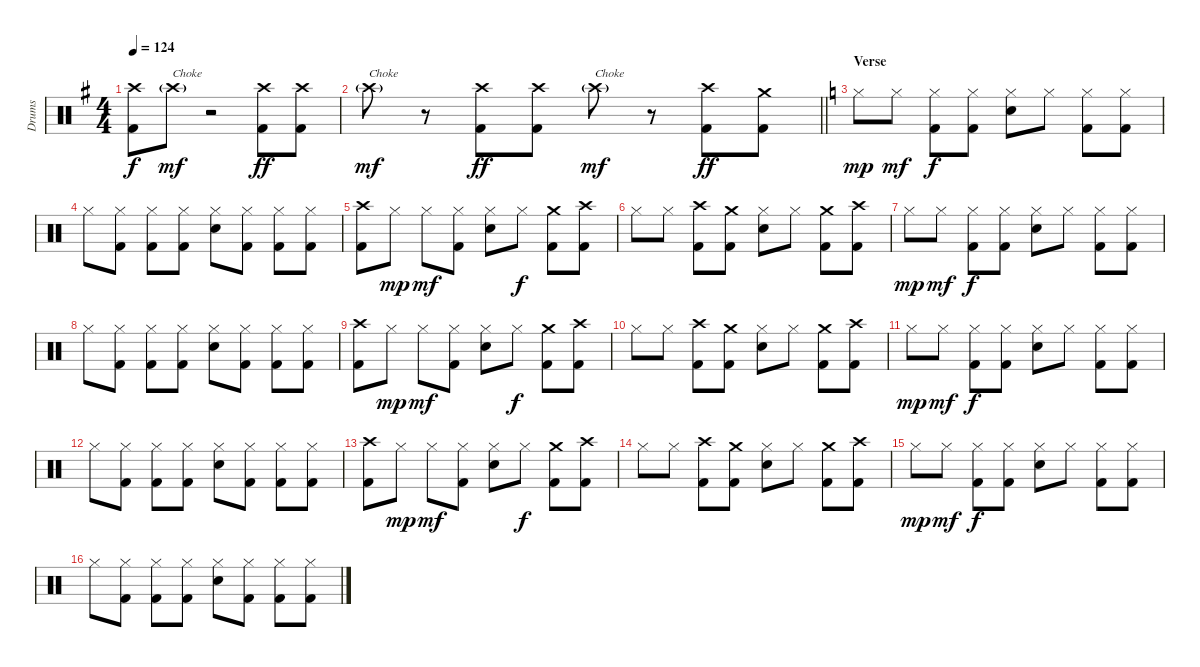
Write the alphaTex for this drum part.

\track ("Drums" "Drums") {instrument percussion}
\staff {score}
\articulation defaults
\ts (4 4)
\tempo 124
\clef neutral
\ks g
("Crash high (hit)" "Kick (hit) 2").8{dy f} "Crash high (hit)"{g}.8{txt "Choke" dy mf volume 0} r.2 ("Crash high (hit)" "Kick (hit) 2").8{dy ff volume 16} ("Crash high (hit)" "Kick (hit) 2").8 |
\barLineRight lightlight "Crash high (hit)"{g}.8{txt "Choke" dy mf volume 0}
r.8 ("Crash high (hit)" "Kick (hit) 2").8{dy ff volume 16} ("Crash high (hit)" "Kick (hit) 2").8 "Crash high (hit)"{g}.8{txt "Choke" dy mf volume 0} r.8 ("Crash high (hit)" "Kick (hit) 2").8{dy ff volume 16} ("Crash medium (hit)" "Kick (hit) 2").8 |
\section ("" "Verse")
\ks c "Hi-Hat (closed)".8{dy mp} "Hi-Hat (closed)".8{dy mf}
("Hi-Hat (closed)" "Kick (hit) 2").8{dy f} ("Hi-Hat (closed)" "Kick (hit) 2").8 ("Hi-Hat (closed)" "Snare (hit) 2").8 "Hi-Hat (closed)".8 ("Hi-Hat (closed)" "Kick (hit) 2").8 ("Hi-Hat (closed)" "Kick (hit) 2").8 |
"Hi-Hat (closed)".8 ("Hi-Hat (closed)" "Kick (hit) 2").8 ("Hi-Hat (closed)" "Kick (hit) 2").8 ("Hi-Hat (closed)" "Kick (hit) 2").8 ("Hi-Hat (closed)" "Snare (hit) 2").8 ("Hi-Hat (closed)" "Kick (hit) 2").8 ("Hi-Hat (closed)" "Kick (hit) 2").8 ("Hi-Hat (closed)" "Kick (hit) 2").8 |
("Crash high (hit)" "Kick (hit) 2").8 "Hi-Hat (closed)".8{dy mp} "Hi-Hat (closed)".8{dy mf} ("Hi-Hat (closed)" "Kick (hit) 2").8 ("Hi-Hat (closed)" "Snare (hit) 2").8 "Hi-Hat (closed)".8{dy f} ("Crash medium (hit)" "Kick (hit) 2").8 ("Crash high (hit)" "Kick (hit) 2").8 |
"Hi-Hat (closed)".8 "Hi-Hat (closed)".8 ("Crash high (hit)" "Kick (hit) 2").8 ("Crash medium (hit)" "Kick (hit) 2").8 ("Hi-Hat (closed)" "Snare (hit) 2").8 "Hi-Hat (closed)".8 ("Crash medium (hit)" "Kick (hit) 2").8 ("Crash high (hit)" "Kick (hit) 2").8 |
"Hi-Hat (closed)".8{dy mp} "Hi-Hat (closed)".8{dy mf} ("Hi-Hat (closed)" "Kick (hit) 2").8{dy f} ("Hi-Hat (closed)" "Kick (hit) 2").8 ("Hi-Hat (closed)" "Snare (hit) 2").8 "Hi-Hat (closed)".8 ("Hi-Hat (closed)" "Kick (hit) 2").8 ("Hi-Hat (closed)" "Kick (hit) 2").8 |
"Hi-Hat (closed)".8 ("Hi-Hat (closed)" "Kick (hit) 2").8 ("Hi-Hat (closed)" "Kick (hit) 2").8 ("Hi-Hat (closed)" "Kick (hit) 2").8 ("Hi-Hat (closed)" "Snare (hit) 2").8 ("Hi-Hat (closed)" "Kick (hit) 2").8 ("Hi-Hat (closed)" "Kick (hit) 2").8 ("Hi-Hat (closed)" "Kick (hit) 2").8 |
("Crash high (hit)" "Kick (hit) 2").8 "Hi-Hat (closed)".8{dy mp} "Hi-Hat (closed)".8{dy mf} ("Hi-Hat (closed)" "Kick (hit) 2").8 ("Hi-Hat (closed)" "Snare (hit) 2").8 "Hi-Hat (closed)".8{dy f} ("Crash medium (hit)" "Kick (hit) 2").8 ("Crash high (hit)" "Kick (hit) 2").8 |
"Hi-Hat (closed)".8 "Hi-Hat (closed)".8 ("Crash high (hit)" "Kick (hit) 2").8 ("Crash medium (hit)" "Kick (hit) 2").8 ("Hi-Hat (closed)" "Snare (hit) 2").8 "Hi-Hat (closed)".8 ("Crash medium (hit)" "Kick (hit) 2").8 ("Crash high (hit)" "Kick (hit) 2").8 |
"Hi-Hat (closed)".8{dy mp} "Hi-Hat (closed)".8{dy mf} ("Hi-Hat (closed)" "Kick (hit) 2").8{dy f} ("Hi-Hat (closed)" "Kick (hit) 2").8 ("Hi-Hat (closed)" "Snare (hit) 2").8 "Hi-Hat (closed)".8 ("Hi-Hat (closed)" "Kick (hit) 2").8 ("Hi-Hat (closed)" "Kick (hit) 2").8 |
"Hi-Hat (closed)".8 ("Hi-Hat (closed)" "Kick (hit) 2").8 ("Hi-Hat (closed)" "Kick (hit) 2").8 ("Hi-Hat (closed)" "Kick (hit) 2").8 ("Hi-Hat (closed)" "Snare (hit) 2").8 ("Hi-Hat (closed)" "Kick (hit) 2").8 ("Hi-Hat (closed)" "Kick (hit) 2").8 ("Hi-Hat (closed)" "Kick (hit) 2").8 |
("Crash high (hit)" "Kick (hit) 2").8 "Hi-Hat (closed)".8{dy mp} "Hi-Hat (closed)".8{dy mf} ("Hi-Hat (closed)" "Kick (hit) 2").8 ("Hi-Hat (closed)" "Snare (hit) 2").8 "Hi-Hat (closed)".8{dy f} ("Crash medium (hit)" "Kick (hit) 2").8 ("Crash high (hit)" "Kick (hit) 2").8 |
"Hi-Hat (closed)".8 "Hi-Hat (closed)".8 ("Crash high (hit)" "Kick (hit) 2").8 ("Crash medium (hit)" "Kick (hit) 2").8 ("Hi-Hat (closed)" "Snare (hit) 2").8 "Hi-Hat (closed)".8 ("Crash medium (hit)" "Kick (hit) 2").8 ("Crash high (hit)" "Kick (hit) 2").8 |
"Hi-Hat (closed)".8{dy mp} "Hi-Hat (closed)".8{dy mf} ("Hi-Hat (closed)" "Kick (hit) 2").8{dy f} ("Hi-Hat (closed)" "Kick (hit) 2").8 ("Hi-Hat (closed)" "Snare (hit) 2").8 "Hi-Hat (closed)".8 ("Hi-Hat (closed)" "Kick (hit) 2").8 ("Hi-Hat (closed)" "Kick (hit) 2").8 |
"Hi-Hat (closed)".8 ("Hi-Hat (closed)" "Kick (hit) 2").8 ("Hi-Hat (closed)" "Kick (hit) 2").8 ("Hi-Hat (closed)" "Kick (hit) 2").8 ("Hi-Hat (closed)" "Snare (hit) 2").8 ("Hi-Hat (closed)" "Kick (hit) 2").8 ("Hi-Hat (closed)" "Kick (hit) 2").8 ("Hi-Hat (closed)" "Kick (hit) 2").8
